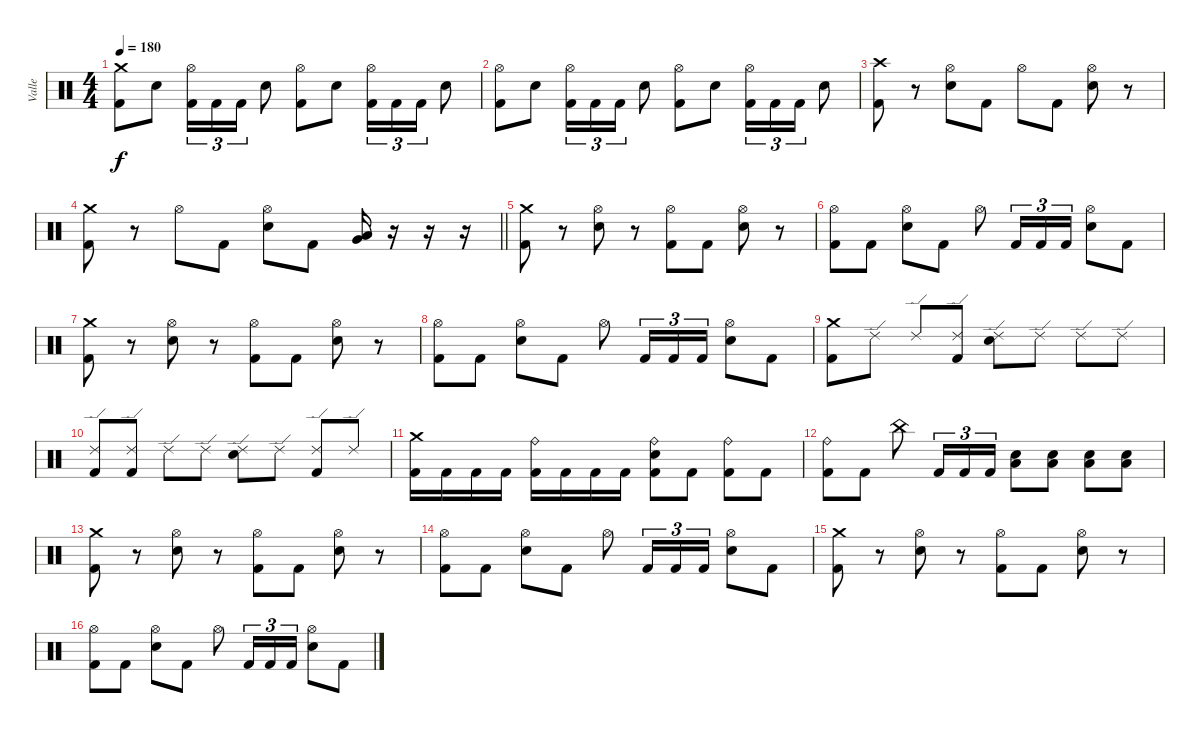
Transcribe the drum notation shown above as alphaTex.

\track ("Valle" "Valle") {instrument percussion}
\staff {score}
\articulation defaults
\ts (4 4)
\tempo 180
\clef neutral
\ks c
("Crash medium (hit)" "Kick (hit) 2").8{dy f} "Snare (hit) 2".8 ("Hi-Hat (open)" "Kick (hit) 2").16{tu (3 2)} "Kick (hit) 2".16{tu (3 2)} "Kick (hit) 2".16{tu (3 2)} "Snare (hit) 2".8 ("Hi-Hat (open)" "Kick (hit) 2").8 "Snare (hit) 2".8 ("Hi-Hat (open)" "Kick (hit) 2").16{tu (3 2)} "Kick (hit) 2".16{tu (3 2)} "Kick (hit) 2".16{tu (3 2)} "Snare (hit) 2".8 |
("Hi-Hat (open)" "Kick (hit) 2").8 "Snare (hit) 2".8 ("Hi-Hat (open)" "Kick (hit) 2").16{tu (3 2)} "Kick (hit) 2".16{tu (3 2)} "Kick (hit) 2".16{tu (3 2)} "Snare (hit) 2".8 ("Hi-Hat (open)" "Kick (hit) 2").8 "Snare (hit) 2".8 ("Hi-Hat (open)" "Kick (hit) 2").16{tu (3 2)} "Kick (hit) 2".16{tu (3 2)} "Kick (hit) 2".16{tu (3 2)} "Snare (hit) 2".8 |
("Crash high (hit)" "Kick (hit) 2").8 r.8 ("Hi-Hat (open)" "Snare (hit) 2").8 "Kick (hit) 2".8 "Hi-Hat (open)".8 "Kick (hit) 2".8 ("Hi-Hat (open)" "Snare (hit) 2").8 r.8 |
\barLineRight lightlight
("Crash medium (hit)" "Kick (hit) 2").8 r.8 "Hi-Hat (open)".8 "Kick (hit) 2".8 ("Hi-Hat (open)" "Snare (hit) 2").8 "Kick (hit) 2".8 ("Very Low Tom (hit)" "Low Floor Tom (hit)").16 r.16 r.16 r.16 |
\section ("" "")
("Crash medium (hit)" "Kick (hit) 2").8 r.8 ("Hi-Hat (open)" "Snare (hit) 2").8 r.8 ("Hi-Hat (open)" "Kick (hit) 2").8 "Kick (hit) 2".8 ("Hi-Hat (open)" "Snare (hit) 2").8 r.8 |
("Hi-Hat (open)" "Kick (hit) 2").8 "Kick (hit) 2".8 ("Hi-Hat (open)" "Snare (hit) 2").8 "Kick (hit) 2".8 "Hi-Hat (open)".8 "Kick (hit) 2".16{tu (3 2)} "Kick (hit) 2".16{tu (3 2)} "Kick (hit) 2".16{tu (3 2)} ("Hi-Hat (open)" "Snare (hit) 2").8 "Kick (hit) 2".8 |
("Crash medium (hit)" "Kick (hit) 2").8 r.8 ("Hi-Hat (open)" "Snare (hit) 2").8 r.8 ("Hi-Hat (open)" "Kick (hit) 2").8 "Kick (hit) 2".8 ("Hi-Hat (open)" "Snare (hit) 2").8 r.8 |
("Hi-Hat (open)" "Kick (hit) 2").8 "Kick (hit) 2".8 ("Hi-Hat (open)" "Snare (hit) 2").8 "Kick (hit) 2".8 "Hi-Hat (open)".8 "Kick (hit) 2".16{tu (3 2)} "Kick (hit) 2".16{tu (3 2)} "Kick (hit) 2".16{tu (3 2)} ("Hi-Hat (open)" "Snare (hit) 2").8 "Kick (hit) 2".8 |
("Crash medium (hit)" "Kick (hit) 2").8 "Ride (edge) 2".8 "Ride (edge) 2".8 ("Ride (edge) 2" "Kick (hit) 2").8 ("Ride (edge) 2" "Snare (hit) 2").8 "Ride (edge) 2".8 "Ride (edge) 2".8 "Ride (edge) 2".8 |
("Ride (edge) 2" "Kick (hit) 2").8 ("Ride (edge) 2" "Kick (hit) 2").8 "Ride (edge) 2".8 "Ride (edge) 2".8 ("Ride (edge) 2" "Snare (hit) 2").8 "Ride (edge) 2".8 ("Ride (edge) 2" "Kick (hit) 2").8 "Ride (edge) 2".8 |
("Crash medium (hit)" "Kick (hit) 2").16 "Kick (hit) 2".16 "Kick (hit) 2".16 "Kick (hit) 2".16 ("Ride (bell)" "Kick (hit) 2").16 "Kick (hit) 2".16 "Kick (hit) 2".16 "Kick (hit) 2".16 ("Ride (bell)" "Snare (hit) 2" "Kick (hit) 2").8 "Kick (hit) 2".8 ("Ride (bell)" "Kick (hit) 2").8 "Kick (hit) 2".8 |
("Ride (bell)" "Kick (hit) 2").8 "Kick (hit) 2".8 "China (hit)".8 "Kick (hit) 2".16{tu (3 2)} "Kick (hit) 2".16{tu (3 2)} "Kick (hit) 2".16{tu (3 2)} ("Low Floor Tom (hit)" "Snare (hit) 2").8 ("Low Floor Tom (hit)" "Snare (hit) 2").8 ("Low Floor Tom (hit)" "Snare (hit) 2").8 ("Low Floor Tom (hit)" "Snare (hit) 2").8 |
("Crash medium (hit)" "Kick (hit) 2").8 r.8 ("Hi-Hat (open)" "Snare (hit) 2").8 r.8 ("Hi-Hat (open)" "Kick (hit) 2").8 "Kick (hit) 2".8 ("Hi-Hat (open)" "Snare (hit) 2").8 r.8 |
("Hi-Hat (open)" "Kick (hit) 2").8 "Kick (hit) 2".8 ("Hi-Hat (open)" "Snare (hit) 2").8 "Kick (hit) 2".8 "Hi-Hat (open)".8 "Kick (hit) 2".16{tu (3 2)} "Kick (hit) 2".16{tu (3 2)} "Kick (hit) 2".16{tu (3 2)} ("Hi-Hat (open)" "Snare (hit) 2").8 "Kick (hit) 2".8 |
("Crash medium (hit)" "Kick (hit) 2").8 r.8 ("Hi-Hat (open)" "Snare (hit) 2").8 r.8 ("Hi-Hat (open)" "Kick (hit) 2").8 "Kick (hit) 2".8 ("Hi-Hat (open)" "Snare (hit) 2").8 r.8 |
("Hi-Hat (open)" "Kick (hit) 2").8 "Kick (hit) 2".8 ("Hi-Hat (open)" "Snare (hit) 2").8 "Kick (hit) 2".8 "Hi-Hat (open)".8 "Kick (hit) 2".16{tu (3 2)} "Kick (hit) 2".16{tu (3 2)} "Kick (hit) 2".16{tu (3 2)} ("Hi-Hat (open)" "Snare (hit) 2").8 "Kick (hit) 2".8
